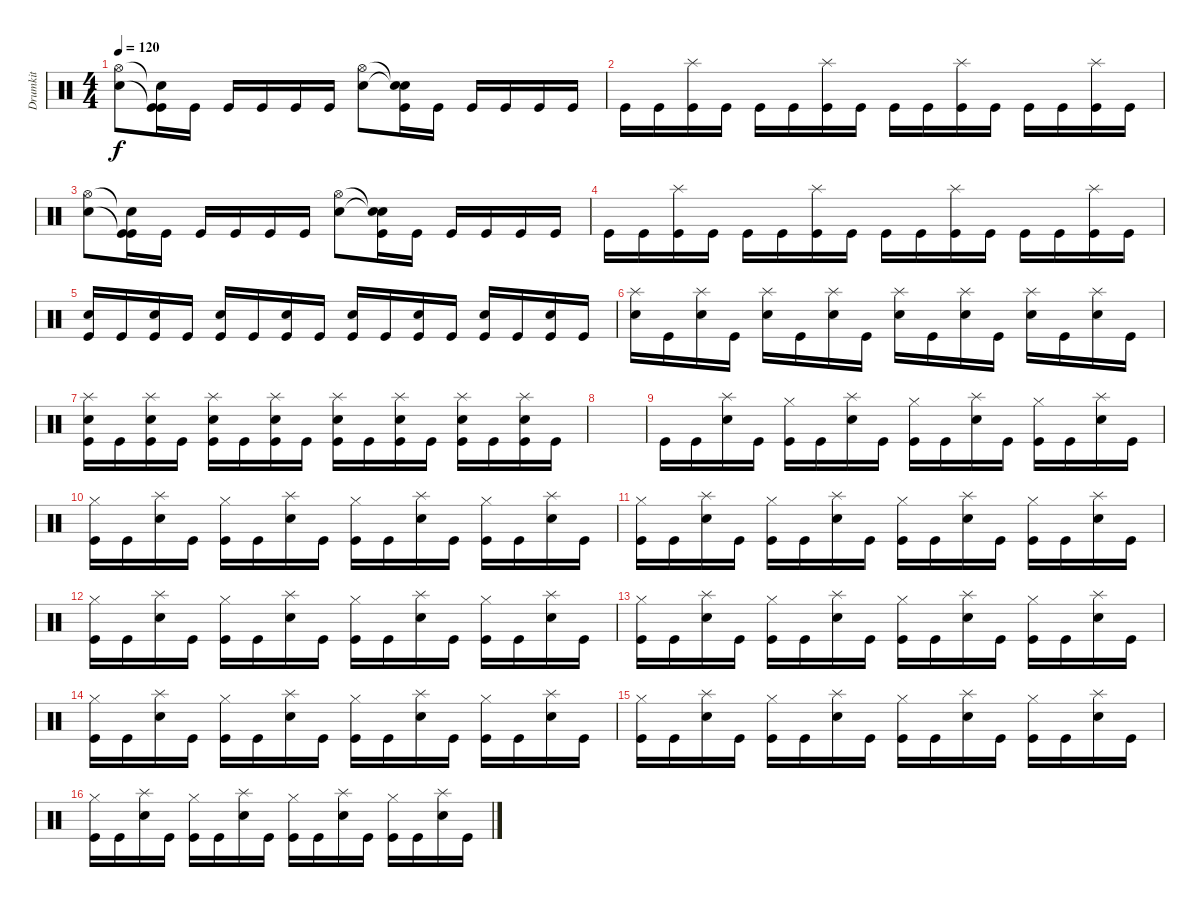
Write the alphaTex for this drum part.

\track ("Drumkit" "Drumkit") {instrument percussion}
\staff {score}
\articulation defaults
\ts (4 4)
\tempo 120
\clef neutral
\ks c
("Hi-Hat (open)" "Electric Snare (hit)").8{dy f} ("Snare (hit)"{t} "Kick (hit)"{t} "Kick (hit)").16 "Kick (hit)".16 "Kick (hit)".16 "Kick (hit)".16 "Kick (hit)".16 "Kick (hit)".16 ("Hi-Hat (open)" "Electric Snare (hit)").8 ("Snare (hit)"{t} "Snare (hit)"{t} "Kick (hit)").16 "Kick (hit)".16 "Kick (hit)".16 "Kick (hit)".16 "Kick (hit)".16 "Kick (hit)".16 |
"Kick (hit)".16 "Kick (hit)".16 ("Splash (hit)" "Kick (hit)").16 "Kick (hit)".16 "Kick (hit)".16 "Kick (hit)".16 ("Splash (hit)" "Kick (hit)").16 "Kick (hit)".16 "Kick (hit)".16 "Kick (hit)".16 ("Splash (hit)" "Kick (hit)").16 "Kick (hit)".16 "Kick (hit)".16 "Kick (hit)".16 ("Splash (hit)" "Kick (hit)").16 "Kick (hit)".16 |
("Hi-Hat (open)" "Electric Snare (hit)").8 ("Snare (hit)"{t} "Kick (hit)"{t} "Kick (hit)").16 "Kick (hit)".16 "Kick (hit)".16 "Kick (hit)".16 "Kick (hit)".16 "Kick (hit)".16 ("Hi-Hat (open)" "Electric Snare (hit)").8 ("Snare (hit)"{t} "Snare (hit)"{t} "Kick (hit)").16 "Kick (hit)".16 "Kick (hit)".16 "Kick (hit)".16 "Kick (hit)".16 "Kick (hit)".16 |
"Kick (hit)".16 "Kick (hit)".16 ("Splash (hit)" "Kick (hit)").16 "Kick (hit)".16 "Kick (hit)".16 "Kick (hit)".16 ("Splash (hit)" "Kick (hit)").16 "Kick (hit)".16 "Kick (hit)".16 "Kick (hit)".16 ("Splash (hit)" "Kick (hit)").16 "Kick (hit)".16 "Kick (hit)".16 "Kick (hit)".16 ("Splash (hit)" "Kick (hit)").16 "Kick (hit)".16 |
("Electric Snare (hit)" "Kick (hit)").16 "Kick (hit)".16 ("Electric Snare (hit)" "Kick (hit)").16 "Kick (hit)".16 ("Electric Snare (hit)" "Kick (hit)").16 "Kick (hit)".16 ("Electric Snare (hit)" "Kick (hit)").16 "Kick (hit)".16 ("Electric Snare (hit)" "Kick (hit)").16 "Kick (hit)".16 ("Electric Snare (hit)" "Kick (hit)").16 "Kick (hit)".16 ("Electric Snare (hit)" "Kick (hit)").16 "Kick (hit)".16 ("Electric Snare (hit)" "Kick (hit)").16 "Kick (hit)".16 |
("Splash (hit)" "Electric Snare (hit)").16 "Kick (hit)".16 ("Splash (hit)" "Electric Snare (hit)").16 "Kick (hit)".16 ("Splash (hit)" "Electric Snare (hit)").16 "Kick (hit)".16 ("Splash (hit)" "Electric Snare (hit)").16 "Kick (hit)".16 ("Splash (hit)" "Electric Snare (hit)").16 "Kick (hit)".16 ("Splash (hit)" "Electric Snare (hit)").16 "Kick (hit)".16 ("Splash (hit)" "Electric Snare (hit)").16 "Kick (hit)".16 ("Splash (hit)" "Electric Snare (hit)").16 "Kick (hit)".16 |
("Splash (hit)" "Electric Snare (hit)" "Kick (hit)").16 "Kick (hit)".16 ("Splash (hit)" "Electric Snare (hit)" "Kick (hit)").16 "Kick (hit)".16 ("Splash (hit)" "Electric Snare (hit)" "Kick (hit)").16 "Kick (hit)".16 ("Splash (hit)" "Electric Snare (hit)" "Kick (hit)").16 "Kick (hit)".16 ("Splash (hit)" "Electric Snare (hit)" "Kick (hit)").16 "Kick (hit)".16 ("Splash (hit)" "Electric Snare (hit)" "Kick (hit)").16 "Kick (hit)".16 ("Splash (hit)" "Electric Snare (hit)" "Kick (hit)").16 "Kick (hit)".16 ("Splash (hit)" "Electric Snare (hit)" "Kick (hit)").16 "Kick (hit)".16 |
|
"Kick (hit)".16 "Kick (hit)".16 ("Splash (hit)" "Electric Snare (hit)").16 "Kick (hit)".16 ("Hi-Hat (closed)" "Kick (hit)").16 "Kick (hit)".16 ("Splash (hit)" "Electric Snare (hit)").16 "Kick (hit)".16 ("Hi-Hat (closed)" "Kick (hit)").16 "Kick (hit)".16 ("Splash (hit)" "Electric Snare (hit)").16 "Kick (hit)".16 ("Hi-Hat (closed)" "Kick (hit)").16 "Kick (hit)".16 ("Splash (hit)" "Electric Snare (hit)").16 "Kick (hit)".16 |
("Hi-Hat (closed)" "Kick (hit)").16 "Kick (hit)".16 ("Splash (hit)" "Electric Snare (hit)").16 "Kick (hit)".16 ("Hi-Hat (closed)" "Kick (hit)").16 "Kick (hit)".16 ("Splash (hit)" "Electric Snare (hit)").16 "Kick (hit)".16 ("Hi-Hat (closed)" "Kick (hit)").16 "Kick (hit)".16 ("Splash (hit)" "Electric Snare (hit)").16 "Kick (hit)".16 ("Hi-Hat (closed)" "Kick (hit)").16 "Kick (hit)".16 ("Splash (hit)" "Electric Snare (hit)").16 "Kick (hit)".16 |
("Hi-Hat (closed)" "Kick (hit)").16 "Kick (hit)".16 ("Splash (hit)" "Electric Snare (hit)").16 "Kick (hit)".16 ("Hi-Hat (closed)" "Kick (hit)").16 "Kick (hit)".16 ("Splash (hit)" "Electric Snare (hit)").16 "Kick (hit)".16 ("Hi-Hat (closed)" "Kick (hit)").16 "Kick (hit)".16 ("Splash (hit)" "Electric Snare (hit)").16 "Kick (hit)".16 ("Hi-Hat (closed)" "Kick (hit)").16 "Kick (hit)".16 ("Splash (hit)" "Electric Snare (hit)").16 "Kick (hit)".16 |
("Hi-Hat (closed)" "Kick (hit)").16 "Kick (hit)".16 ("Splash (hit)" "Electric Snare (hit)").16 "Kick (hit)".16 ("Hi-Hat (closed)" "Kick (hit)").16 "Kick (hit)".16 ("Splash (hit)" "Electric Snare (hit)").16 "Kick (hit)".16 ("Hi-Hat (closed)" "Kick (hit)").16 "Kick (hit)".16 ("Splash (hit)" "Electric Snare (hit)").16 "Kick (hit)".16 ("Hi-Hat (closed)" "Kick (hit)").16 "Kick (hit)".16 ("Splash (hit)" "Electric Snare (hit)").16 "Kick (hit)".16 |
("Hi-Hat (closed)" "Kick (hit)").16 "Kick (hit)".16 ("Splash (hit)" "Electric Snare (hit)").16 "Kick (hit)".16 ("Hi-Hat (closed)" "Kick (hit)").16 "Kick (hit)".16 ("Splash (hit)" "Electric Snare (hit)").16 "Kick (hit)".16 ("Hi-Hat (closed)" "Kick (hit)").16 "Kick (hit)".16 ("Splash (hit)" "Electric Snare (hit)").16 "Kick (hit)".16 ("Hi-Hat (closed)" "Kick (hit)").16 "Kick (hit)".16 ("Splash (hit)" "Electric Snare (hit)").16 "Kick (hit)".16 |
("Hi-Hat (closed)" "Kick (hit)").16 "Kick (hit)".16 ("Splash (hit)" "Electric Snare (hit)").16 "Kick (hit)".16 ("Hi-Hat (closed)" "Kick (hit)").16 "Kick (hit)".16 ("Splash (hit)" "Electric Snare (hit)").16 "Kick (hit)".16 ("Hi-Hat (closed)" "Kick (hit)").16 "Kick (hit)".16 ("Splash (hit)" "Electric Snare (hit)").16 "Kick (hit)".16 ("Hi-Hat (closed)" "Kick (hit)").16 "Kick (hit)".16 ("Splash (hit)" "Electric Snare (hit)").16 "Kick (hit)".16 |
("Hi-Hat (closed)" "Kick (hit)").16 "Kick (hit)".16 ("Splash (hit)" "Electric Snare (hit)").16 "Kick (hit)".16 ("Hi-Hat (closed)" "Kick (hit)").16 "Kick (hit)".16 ("Splash (hit)" "Electric Snare (hit)").16 "Kick (hit)".16 ("Hi-Hat (closed)" "Kick (hit)").16 "Kick (hit)".16 ("Splash (hit)" "Electric Snare (hit)").16 "Kick (hit)".16 ("Hi-Hat (closed)" "Kick (hit)").16 "Kick (hit)".16 ("Splash (hit)" "Electric Snare (hit)").16 "Kick (hit)".16 |
("Hi-Hat (closed)" "Kick (hit)").16 "Kick (hit)".16 ("Splash (hit)" "Electric Snare (hit)").16 "Kick (hit)".16 ("Hi-Hat (closed)" "Kick (hit)").16 "Kick (hit)".16 ("Splash (hit)" "Electric Snare (hit)").16 "Kick (hit)".16 ("Hi-Hat (closed)" "Kick (hit)").16 "Kick (hit)".16 ("Splash (hit)" "Electric Snare (hit)").16 "Kick (hit)".16 ("Hi-Hat (closed)" "Kick (hit)").16 "Kick (hit)".16 ("Splash (hit)" "Electric Snare (hit)").16 "Kick (hit)".16
